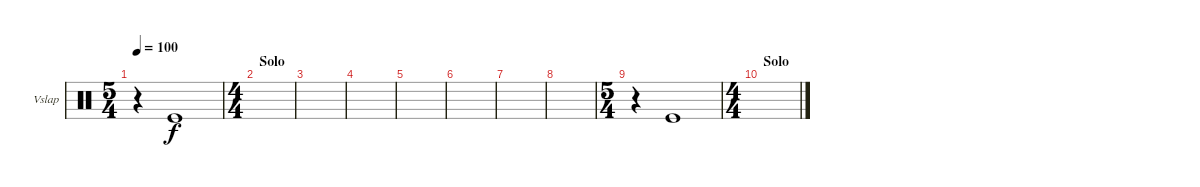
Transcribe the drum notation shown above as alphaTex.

\defaultSystemsLayout 4
\bracketExtendMode groupsimilarinstruments
\firstSystemTrackNameOrientation horizontal
\otherSystemsTrackNameOrientation horizontal
\track ("Vibraslap" "Vslap") {instrument percussion}
\staff {score}
\articulation defaults
\ts (5 4)
\tempo 100
\clef neutral
\scale
0.390805
\ks c
r.4{dy f} "Kick (hit)".1 |
\ts (4 4)
\section ("" "Solo")
\scale
0.390805 |
\scale
0.218391 |
\scale
0.333333 |
\scale
0.333333 |
\scale
0.333333 |
\scale
0.263889 |
\scale
0.263889 |
\ts (5 4)
\scale
0.472222 r.4 "Kick (hit)".1 |
\ts (4 4)
\section ("" "Solo")
\scale
0.472222 |
\scale
0.263889 |
\scale
0.263889 |
\scale
0.333333 |
\scale
0.333333 |
\scale
0.333333 |
\scale
0.218391
